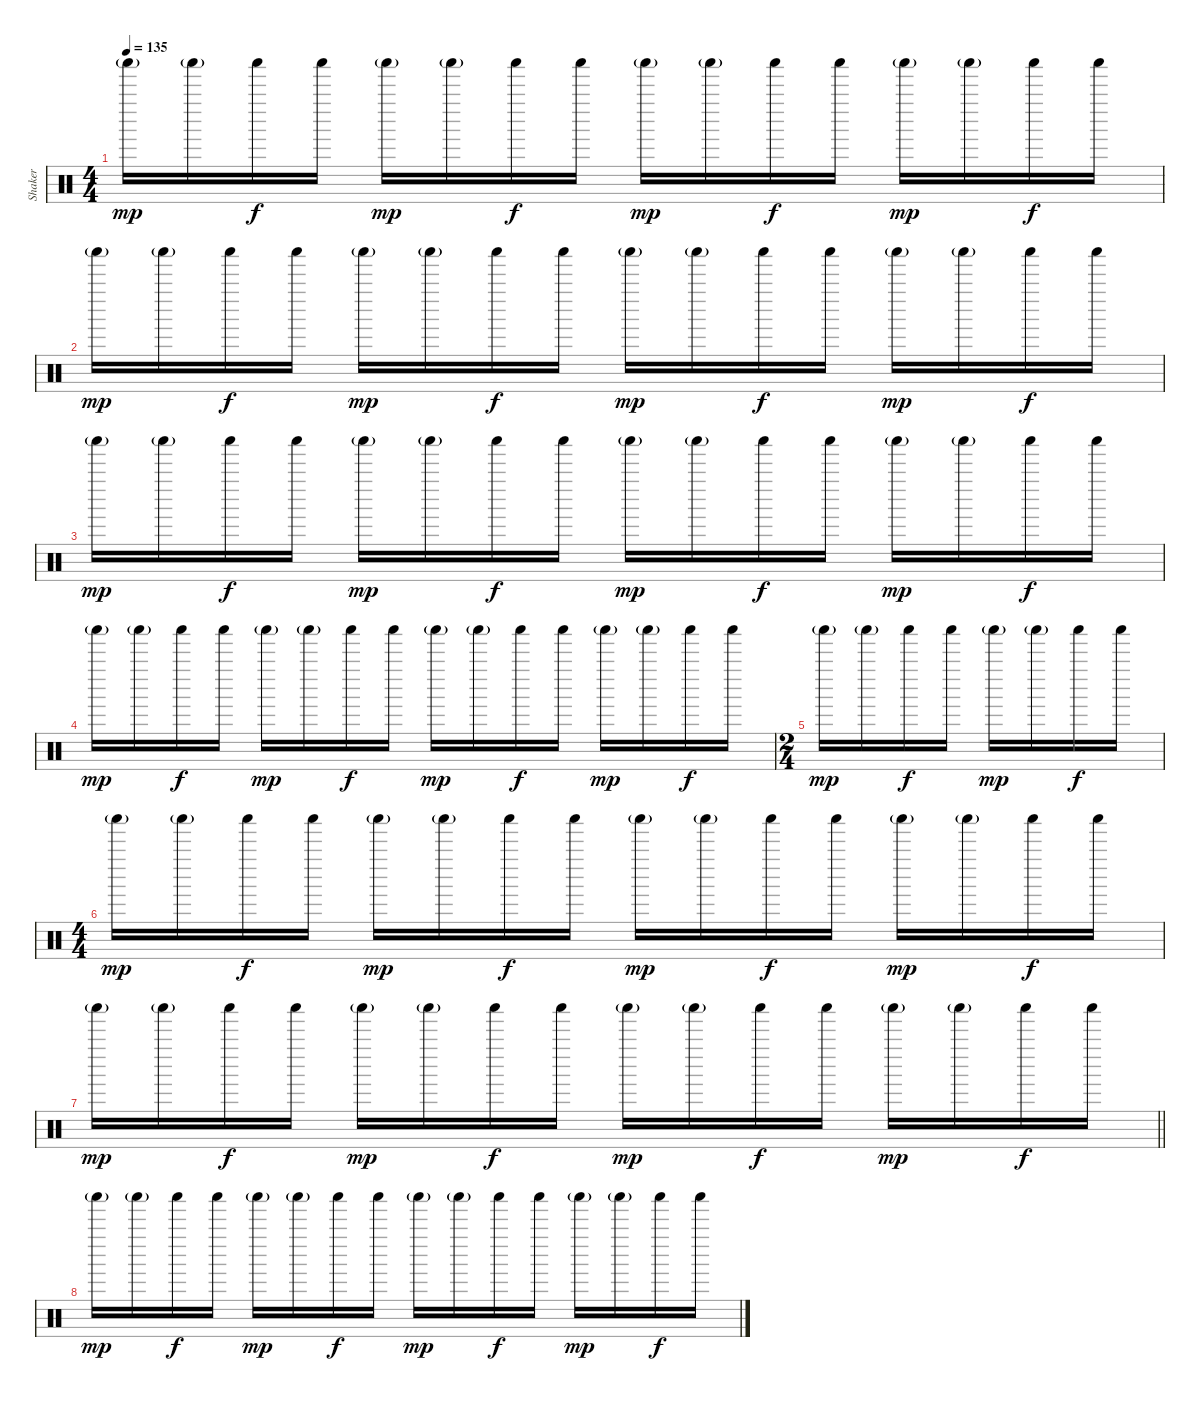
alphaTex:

\track ("Shaker" "Shaker") {instrument percussion}
\staff {score}
\articulation defaults
\ts (4 4)
\tempo 135
\clef neutral
\ks c "Shaker (hit)"{g}.16{dy mp} "Shaker (hit)"{g}.16 "Shaker (hit)".16{dy f} "Shaker (hit)".16 "Shaker (hit)"{g}.16{dy mp} "Shaker (hit)"{g}.16 "Shaker (hit)".16{dy f} "Shaker (hit)".16 "Shaker (hit)"{g}.16{dy mp} "Shaker (hit)"{g}.16 "Shaker (hit)".16{dy f} "Shaker (hit)".16 "Shaker (hit)"{g}.16{dy mp} "Shaker (hit)"{g}.16 "Shaker (hit)".16{dy f} "Shaker (hit)".16
|
"Shaker (hit)"{g}.16{dy mp} "Shaker (hit)"{g}.16 "Shaker (hit)".16{dy f} "Shaker (hit)".16 "Shaker (hit)"{g}.16{dy mp} "Shaker (hit)"{g}.16 "Shaker (hit)".16{dy f} "Shaker (hit)".16 "Shaker (hit)"{g}.16{dy mp} "Shaker (hit)"{g}.16 "Shaker (hit)".16{dy f} "Shaker (hit)".16 "Shaker (hit)"{g}.16{dy mp} "Shaker (hit)"{g}.16 "Shaker (hit)".16{dy f} "Shaker (hit)".16 |
"Shaker (hit)"{g}.16{dy mp} "Shaker (hit)"{g}.16 "Shaker (hit)".16{dy f} "Shaker (hit)".16 "Shaker (hit)"{g}.16{dy mp} "Shaker (hit)"{g}.16 "Shaker (hit)".16{dy f} "Shaker (hit)".16 "Shaker (hit)"{g}.16{dy mp} "Shaker (hit)"{g}.16 "Shaker (hit)".16{dy f} "Shaker (hit)".16 "Shaker (hit)"{g}.16{dy mp} "Shaker (hit)"{g}.16 "Shaker (hit)".16{dy f} "Shaker (hit)".16 |
"Shaker (hit)"{g}.16{dy mp} "Shaker (hit)"{g}.16 "Shaker (hit)".16{dy f} "Shaker (hit)".16 "Shaker (hit)"{g}.16{dy mp} "Shaker (hit)"{g}.16 "Shaker (hit)".16{dy f} "Shaker (hit)".16 "Shaker (hit)"{g}.16{dy mp} "Shaker (hit)"{g}.16 "Shaker (hit)".16{dy f} "Shaker (hit)".16 "Shaker (hit)"{g}.16{dy mp} "Shaker (hit)"{g}.16 "Shaker (hit)".16{dy f} "Shaker (hit)".16 |
\ts (2 4)
"Shaker (hit)"{g}.16{dy mp} "Shaker (hit)"{g}.16 "Shaker (hit)".16{dy f} "Shaker (hit)".16 "Shaker (hit)"{g}.16{dy mp} "Shaker (hit)"{g}.16 "Shaker (hit)".16{dy f} "Shaker (hit)".16 |
\ts (4 4)
"Shaker (hit)"{g}.16{dy mp} "Shaker (hit)"{g}.16 "Shaker (hit)".16{dy f} "Shaker (hit)".16 "Shaker (hit)"{g}.16{dy mp} "Shaker (hit)"{g}.16 "Shaker (hit)".16{dy f} "Shaker (hit)".16 "Shaker (hit)"{g}.16{dy mp} "Shaker (hit)"{g}.16 "Shaker (hit)".16{dy f} "Shaker (hit)".16 "Shaker (hit)"{g}.16{dy mp} "Shaker (hit)"{g}.16 "Shaker (hit)".16{dy f} "Shaker (hit)".16 |
\barLineRight lightlight "Shaker (hit)"{g}.16{dy mp} "Shaker (hit)"{g}.16 "Shaker (hit)".16{dy f} "Shaker (hit)".16 "Shaker (hit)"{g}.16{dy mp} "Shaker (hit)"{g}.16 "Shaker (hit)".16{dy f} "Shaker (hit)".16 "Shaker (hit)"{g}.16{dy mp} "Shaker (hit)"{g}.16 "Shaker (hit)".16{dy f} "Shaker (hit)".16 "Shaker (hit)"{g}.16{dy mp} "Shaker (hit)"{g}.16 "Shaker (hit)".16{dy f} "Shaker (hit)".16
|
"Shaker (hit)"{g}.16{dy mp} "Shaker (hit)"{g}.16 "Shaker (hit)".16{dy f} "Shaker (hit)".16 "Shaker (hit)"{g}.16{dy mp} "Shaker (hit)"{g}.16 "Shaker (hit)".16{dy f} "Shaker (hit)".16 "Shaker (hit)"{g}.16{dy mp} "Shaker (hit)"{g}.16 "Shaker (hit)".16{dy f} "Shaker (hit)".16 "Shaker (hit)"{g}.16{dy mp} "Shaker (hit)"{g}.16 "Shaker (hit)".16{dy f} "Shaker (hit)".16
